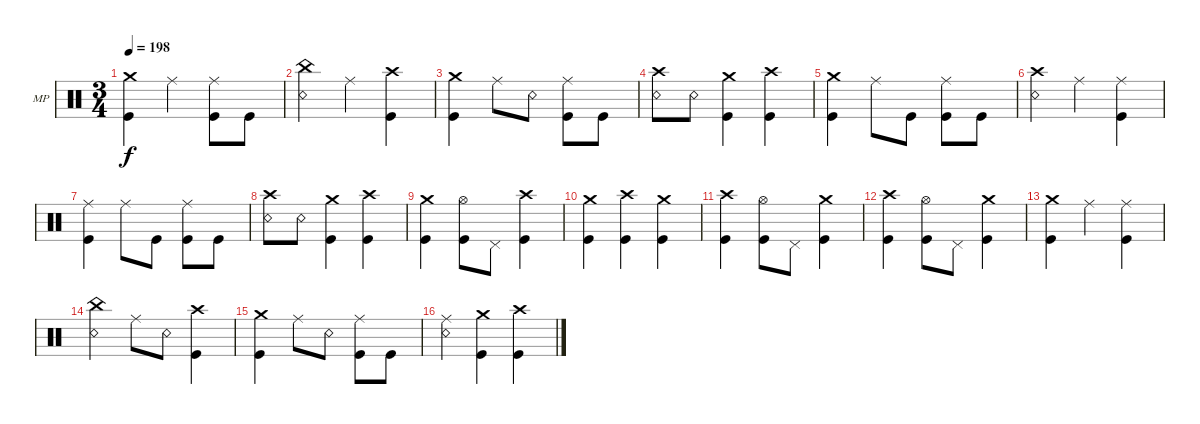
\defaultSystemsLayout 4
\bracketExtendMode groupsimilarinstruments
\firstSystemTrackNameOrientation horizontal
\otherSystemsTrackNameOrientation horizontal
\track ("Mike Portnoy" "MP") {instrument percussion}
\staff {score}
\articulation defaults
\ts (3 4)
\tempo 198
\clef neutral
\ks c
("Crash medium (hit)" "Kick (hit)").4{dy f} "Ride (middle)".4 ("Ride (middle)" "Kick (hit)").8 "Kick (hit)".8 |
("China (hit)" "Snare (rim shot)").4 "Ride (middle)".4 ("Crash high (hit)" "Kick (hit)").4 |
("Crash medium (hit)" "Kick (hit)").4 "Ride (middle)".8 "Snare (rim shot)".8 ("Ride (middle)" "Kick (hit)").8 "Kick (hit)".8 |
("Crash high (hit)" "Snare (rim shot)").8 "Snare (rim shot)".8 ("Crash medium (hit)" "Kick (hit)").4 ("Crash high (hit)" "Kick (hit)").4 |
("Crash medium (hit)" "Kick (hit)").4 "Ride (middle)".8 "Kick (hit)".8 ("Ride (middle)" "Kick (hit)").8 "Kick (hit)".8 |
("Crash high (hit)" "Snare (rim shot)").4 "Ride (middle)".4 ("Ride (middle)" "Kick (hit)").4 |
("Ride (middle)" "Kick (hit)").4 "Ride (middle)".8 "Kick (hit)".8 ("Ride (middle)" "Kick (hit)").8 "Kick (hit)".8 |
("Crash high (hit)" "Snare (rim shot)").8 "Snare (rim shot)".8 ("Crash medium (hit)" "Kick (hit)").4 ("Crash high (hit)" "Kick (hit)").4 |
("Crash medium (hit)" "Kick (hit)").4 ("Hi-Hat (open)" "Kick (hit)").8 "Pedal Hi-Hat (hit)".8 ("Crash high (hit)" "Kick (hit)").4 |
("Crash medium (hit)" "Kick (hit)").4 ("Crash high (hit)" "Kick (hit)").4 ("Crash medium (hit)" "Kick (hit)").4 |
("Crash high (hit)" "Kick (hit)").4 ("Hi-Hat (open)" "Kick (hit)").8 "Pedal Hi-Hat (hit)".8 ("Crash medium (hit)" "Kick (hit)").4 |
("Crash high (hit)" "Kick (hit)").4 ("Hi-Hat (open)" "Kick (hit)").8 "Pedal Hi-Hat (hit)".8 ("Crash medium (hit)" "Kick (hit)").4 |
("Crash medium (hit)" "Kick (hit)").4 "Ride (middle)".4 ("Ride (middle)" "Kick (hit)").4 |
("China (hit)" "Snare (rim shot)").4 "Ride (middle)".8 "Snare (rim shot)".8 ("Crash high (hit)" "Kick (hit)").4 |
("Crash medium (hit)" "Kick (hit)").4 "Ride (middle)".8 "Snare (rim shot)".8 ("Ride (middle)" "Kick (hit)").8 "Kick (hit)".8 |
("Ride (middle)" "Snare (rim shot)").4 ("Crash medium (hit)" "Kick (hit)").4 ("Crash high (hit)" "Kick (hit)").4
